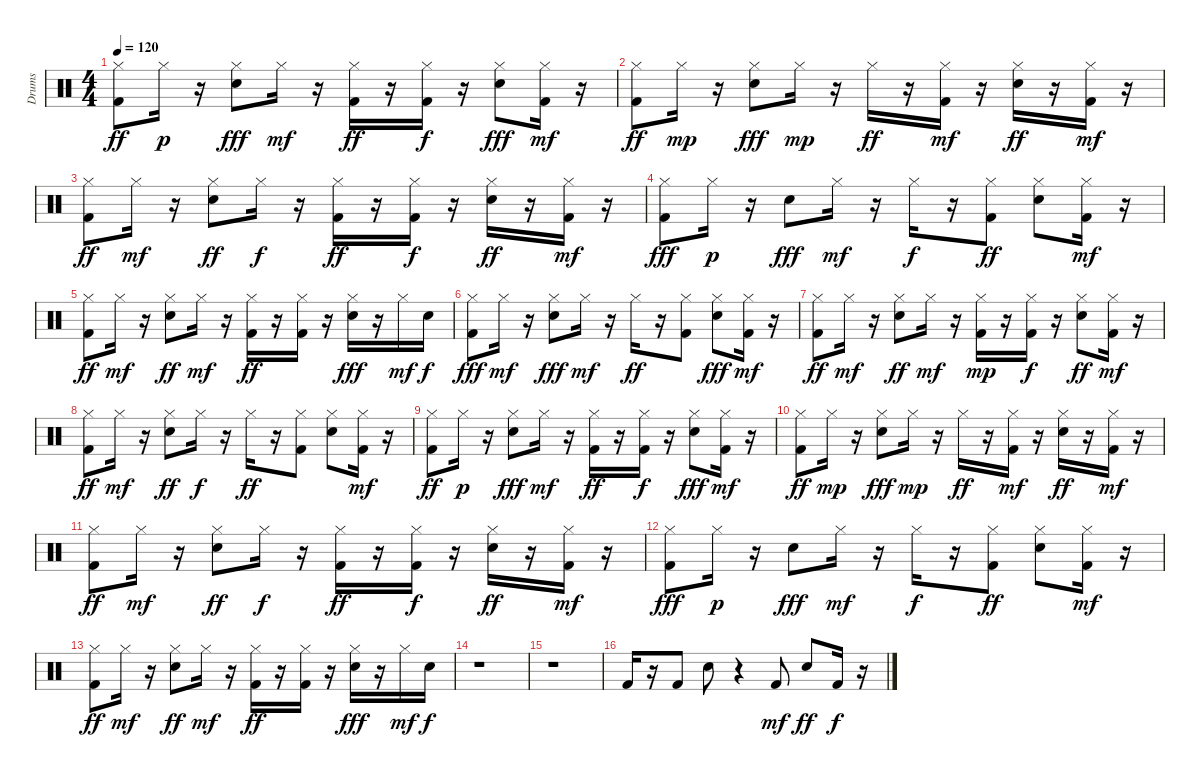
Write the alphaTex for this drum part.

\track ("Drums" "Drums") {instrument percussion}
\staff {score}
\articulation defaults
\ts (4 4)
\tempo 120
\clef neutral
\ks c
("Hi-Hat (closed)" "Kick (hit) 2").8{dy ff} "Hi-Hat (closed)".16{dy p} r.16 ("Hi-Hat (closed)" "Electric Snare (hit)").8{dy fff} "Hi-Hat (closed)".16{dy mf} r.16 ("Kick (hit) 2" "Hi-Hat (closed)").16{dy ff} r.16 ("Hi-Hat (closed)" "Kick (hit) 2").16{dy f} r.16 ("Electric Snare (hit)" "Hi-Hat (closed)").8{dy fff} ("Hi-Hat (closed)" "Kick (hit) 2").16{dy mf} r.16 |
("Hi-Hat (closed)" "Kick (hit) 2").8{dy ff} "Hi-Hat (closed)".16{dy mp} r.16 ("Hi-Hat (closed)" "Electric Snare (hit)").8{dy fff} "Hi-Hat (closed)".16{dy mp} r.16 "Hi-Hat (closed)".16{dy ff} r.16 ("Kick (hit) 2" "Hi-Hat (closed)").16{dy mf} r.16 ("Hi-Hat (closed)" "Electric Snare (hit)").16{dy ff} r.16 ("Hi-Hat (closed)" "Kick (hit) 2").16{dy mf} r.16 |
("Hi-Hat (closed)" "Kick (hit) 2").8{dy ff} "Hi-Hat (closed)".16{dy mf} r.16 ("Hi-Hat (closed)" "Electric Snare (hit)").8{dy ff} "Hi-Hat (closed)".16{dy f} r.16 ("Hi-Hat (closed)" "Kick (hit) 2").16{dy ff} r.16 ("Hi-Hat (closed)" "Kick (hit) 2").16{dy f} r.16 ("Hi-Hat (closed)" "Electric Snare (hit)").16{dy ff} r.16 ("Kick (hit) 2" "Hi-Hat (closed)").16{dy mf} r.16 |
("Hi-Hat (closed)" "Kick (hit) 2").8{dy fff} "Hi-Hat (closed)".16{dy p} r.16 "Electric Snare (hit)".8{dy fff} "Hi-Hat (closed)".16{dy mf} r.16 "Hi-Hat (closed)".16{dy f} r.16 ("Hi-Hat (closed)" "Kick (hit) 2").8{dy ff} ("Hi-Hat (closed)" "Electric Snare (hit)").8 ("Hi-Hat (closed)" "Kick (hit) 2").16{dy mf} r.16 |
("Kick (hit) 2" "Hi-Hat (closed)").8{dy ff} "Hi-Hat (closed)".16{dy mf} r.16 ("Electric Snare (hit)" "Hi-Hat (closed)").8{dy ff} "Hi-Hat (closed)".16{dy mf} r.16 ("Kick (hit) 2" "Hi-Hat (closed)").16{dy ff} r.16 ("Hi-Hat (closed)" "Kick (hit) 2").16 r.16 ("Hi-Hat (closed)" "Electric Snare (hit)").16{dy fff} r.16 "Hi-Hat (closed)".16{dy mf} "Electric Snare (hit)".16{dy f} |
("Kick (hit) 2" "Hi-Hat (closed)").8{dy fff} "Hi-Hat (closed)".16{dy mf} r.16 ("Electric Snare (hit)" "Hi-Hat (closed)").8{dy fff} "Hi-Hat (closed)".16{dy mf} r.16 "Hi-Hat (closed)".16{dy ff} r.16 ("Hi-Hat (closed)" "Kick (hit) 2").8 ("Electric Snare (hit)" "Hi-Hat (closed)").8{dy fff} ("Kick (hit) 2" "Hi-Hat (closed)").16{dy mf} r.16 |
("Kick (hit) 2" "Hi-Hat (closed)").8{dy ff} "Hi-Hat (closed)".16{dy mf} r.16 ("Electric Snare (hit)" "Hi-Hat (closed)").8{dy ff} "Hi-Hat (closed)".16{dy mf} r.16 ("Kick (hit) 2" "Hi-Hat (closed)").16{dy mp} r.16 ("Hi-Hat (closed)" "Kick (hit) 2").16{dy f} r.16 ("Hi-Hat (closed)" "Electric Snare (hit)").8{dy ff} ("Kick (hit) 2" "Hi-Hat (closed)").16{dy mf} r.16 |
("Hi-Hat (closed)" "Kick (hit) 2").8{dy ff} "Hi-Hat (closed)".16{dy mf} r.16 ("Hi-Hat (closed)" "Electric Snare (hit)").8{dy ff} "Hi-Hat (closed)".16{dy f} r.16 "Hi-Hat (closed)".16{dy ff} r.16 ("Kick (hit) 2" "Hi-Hat (closed)").8 ("Electric Snare (hit)" "Hi-Hat (closed)").8 ("Kick (hit) 2" "Hi-Hat (closed)").16{dy mf} r.16 |
("Hi-Hat (closed)" "Kick (hit) 2").8{dy ff} "Hi-Hat (closed)".16{dy p} r.16 ("Hi-Hat (closed)" "Electric Snare (hit)").8{dy fff} "Hi-Hat (closed)".16{dy mf} r.16 ("Kick (hit) 2" "Hi-Hat (closed)").16{dy ff} r.16 ("Hi-Hat (closed)" "Kick (hit) 2").16{dy f} r.16 ("Electric Snare (hit)" "Hi-Hat (closed)").8{dy fff} ("Hi-Hat (closed)" "Kick (hit) 2").16{dy mf} r.16 |
("Hi-Hat (closed)" "Kick (hit) 2").8{dy ff} "Hi-Hat (closed)".16{dy mp} r.16 ("Hi-Hat (closed)" "Electric Snare (hit)").8{dy fff} "Hi-Hat (closed)".16{dy mp} r.16 "Hi-Hat (closed)".16{dy ff} r.16 ("Kick (hit) 2" "Hi-Hat (closed)").16{dy mf} r.16 ("Hi-Hat (closed)" "Electric Snare (hit)").16{dy ff} r.16 ("Hi-Hat (closed)" "Kick (hit) 2").16{dy mf} r.16 |
("Hi-Hat (closed)" "Kick (hit) 2").8{dy ff} "Hi-Hat (closed)".16{dy mf} r.16 ("Hi-Hat (closed)" "Electric Snare (hit)").8{dy ff} "Hi-Hat (closed)".16{dy f} r.16 ("Hi-Hat (closed)" "Kick (hit) 2").16{dy ff} r.16 ("Hi-Hat (closed)" "Kick (hit) 2").16{dy f} r.16 ("Hi-Hat (closed)" "Electric Snare (hit)").16{dy ff} r.16 ("Kick (hit) 2" "Hi-Hat (closed)").16{dy mf} r.16 |
("Hi-Hat (closed)" "Kick (hit) 2").8{dy fff} "Hi-Hat (closed)".16{dy p} r.16 "Electric Snare (hit)".8{dy fff} "Hi-Hat (closed)".16{dy mf} r.16 "Hi-Hat (closed)".16{dy f} r.16 ("Hi-Hat (closed)" "Kick (hit) 2").8{dy ff} ("Hi-Hat (closed)" "Electric Snare (hit)").8 ("Hi-Hat (closed)" "Kick (hit) 2").16{dy mf} r.16 |
("Kick (hit) 2" "Hi-Hat (closed)").8{dy ff} "Hi-Hat (closed)".16{dy mf} r.16 ("Electric Snare (hit)" "Hi-Hat (closed)").8{dy ff} "Hi-Hat (closed)".16{dy mf} r.16 ("Kick (hit) 2" "Hi-Hat (closed)").16{dy ff} r.16 ("Hi-Hat (closed)" "Kick (hit) 2").16 r.16 ("Hi-Hat (closed)" "Electric Snare (hit)").16{dy fff} r.16 "Hi-Hat (closed)".16{dy mf} "Electric Snare (hit)".16{dy f} |
r.1 |
r.1 |
"Kick (hit) 2".16 r.16 "Kick (hit) 2".8 "Electric Snare (hit)".8 r.4 "Kick (hit) 2".8{dy mf} "Electric Snare (hit)".8{dy ff} "Kick (hit) 2".16{dy f} r.16
